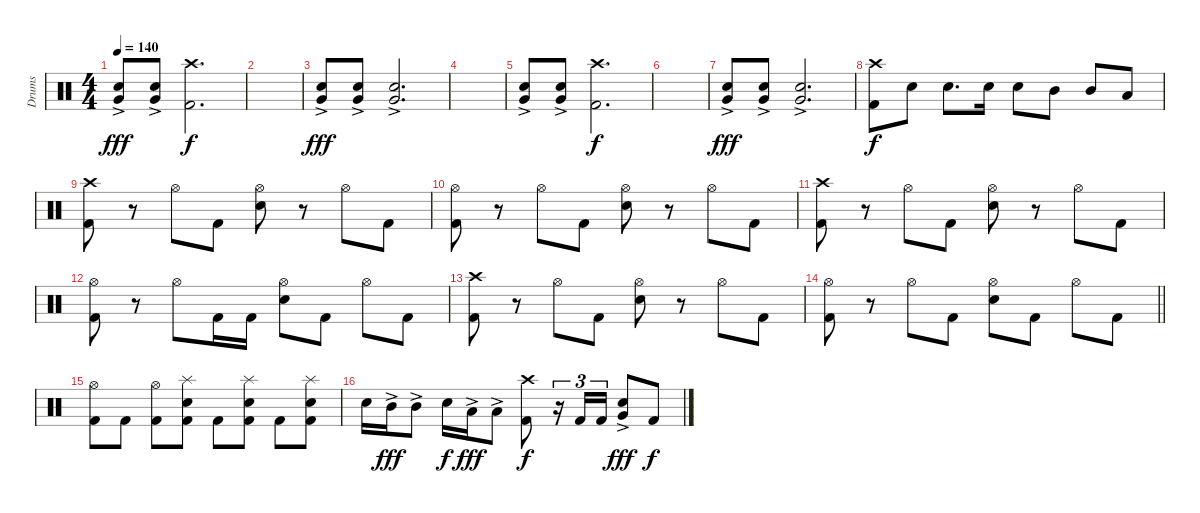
\track ("Drums" "Drums") {instrument percussion}
\staff {score}
\articulation defaults
\ts (4 4)
\tempo 140
\clef neutral
\ks c
("Very Low Tom (hit)"{ac} "Electric Snare (hit)").8{dy fff} ("Very Low Tom (hit)"{ac} "Electric Snare (hit)").8 ("Crash high (hit)" "Kick (hit) 2").2{d dy f} |
|
("Very Low Tom (hit)"{ac} "Electric Snare (hit)").8{dy fff} ("Very Low Tom (hit)"{ac} "Electric Snare (hit)").8 ("Very Low Tom (hit)"{ac} "Electric Snare (hit)").2{d} |
|
("Very Low Tom (hit)"{ac} "Electric Snare (hit)").8 ("Very Low Tom (hit)"{ac} "Electric Snare (hit)").8 ("Crash high (hit)" "Kick (hit) 2").2{d dy f} |
|
("Very Low Tom (hit)"{ac} "Electric Snare (hit)").8{dy fff} ("Very Low Tom (hit)"{ac} "Electric Snare (hit)").8 ("Very Low Tom (hit)"{ac} "Electric Snare (hit)").2{d} |
("Crash high (hit)" "Kick (hit) 2").8{dy f} "Electric Snare (hit)".8 "Electric Snare (hit)".8{d} "Electric Snare (hit)".16 "Electric Snare (hit)".8 "Mid Tom (hit)".8 "Mid Tom (hit)".8 "Low Tom (hit)".8 |
("Crash high (hit)" "Kick (hit) 2").8 r.8 "Hi-Hat (open)".8 "Kick (hit) 2".8 ("Hi-Hat (open)" "Electric Snare (hit)").8 r.8 "Hi-Hat (open)".8 "Kick (hit) 2".8 |
("Hi-Hat (open)" "Kick (hit) 2").8 r.8 "Hi-Hat (open)".8 "Kick (hit) 2".8 ("Hi-Hat (open)" "Electric Snare (hit)").8 r.8 "Hi-Hat (open)".8 "Kick (hit) 2".8 |
("Crash high (hit)" "Kick (hit) 2").8 r.8 "Hi-Hat (open)".8 "Kick (hit) 2".8 ("Hi-Hat (open)" "Electric Snare (hit)").8 r.8 "Hi-Hat (open)".8 "Kick (hit) 2".8 |
("Hi-Hat (open)" "Kick (hit) 2").8 r.8 "Hi-Hat (open)".8 "Kick (hit) 2".16 "Kick (hit) 2".16 ("Hi-Hat (open)" "Electric Snare (hit)").8 "Kick (hit) 2".8 "Hi-Hat (open)".8 "Kick (hit) 2".8 |
("Crash high (hit)" "Kick (hit) 2").8 r.8 "Hi-Hat (open)".8 "Kick (hit) 2".8 ("Hi-Hat (open)" "Electric Snare (hit)").8 r.8 "Hi-Hat (open)".8 "Kick (hit) 2".8 |
\barLineRight lightlight
("Hi-Hat (open)" "Kick (hit) 2").8 r.8 "Hi-Hat (open)".8 "Kick (hit) 2".8 ("Hi-Hat (open)" "Electric Snare (hit)").8 "Kick (hit) 2".8 "Hi-Hat (open)".8 "Kick (hit) 2".8 |
\section ("" "")
("Hi-Hat (open)" "Kick (hit) 2").8 "Kick (hit) 2".8 ("Hi-Hat (open)" "Kick (hit) 2").8 ("Splash (hit)" "Electric Snare (hit)" "Kick (hit) 2").8 "Kick (hit) 2".8 ("Splash (hit)" "Electric Snare (hit)" "Kick (hit) 2").8 "Kick (hit) 2".8 ("Splash (hit)" "Electric Snare (hit)" "Kick (hit) 2").8 |
"Electric Snare (hit)".16 "Mid Tom (hit)"{ac}.16{dy fff} "Mid Tom (hit)"{ac}.8 "Electric Snare (hit)".16{dy f} "Low Tom (hit)"{ac}.16{dy fff} "Low Tom (hit)"{ac}.8 ("Crash high (hit)" "Kick (hit) 2").8{dy f} r.16{tu (3 2)} "Kick (hit) 2".16{tu (3 2)} "Kick (hit) 2".16{tu (3 2)} ("Very Low Tom (hit)"{ac} "Electric Snare (hit)").8{dy fff} "Kick (hit) 2".8{dy f}
